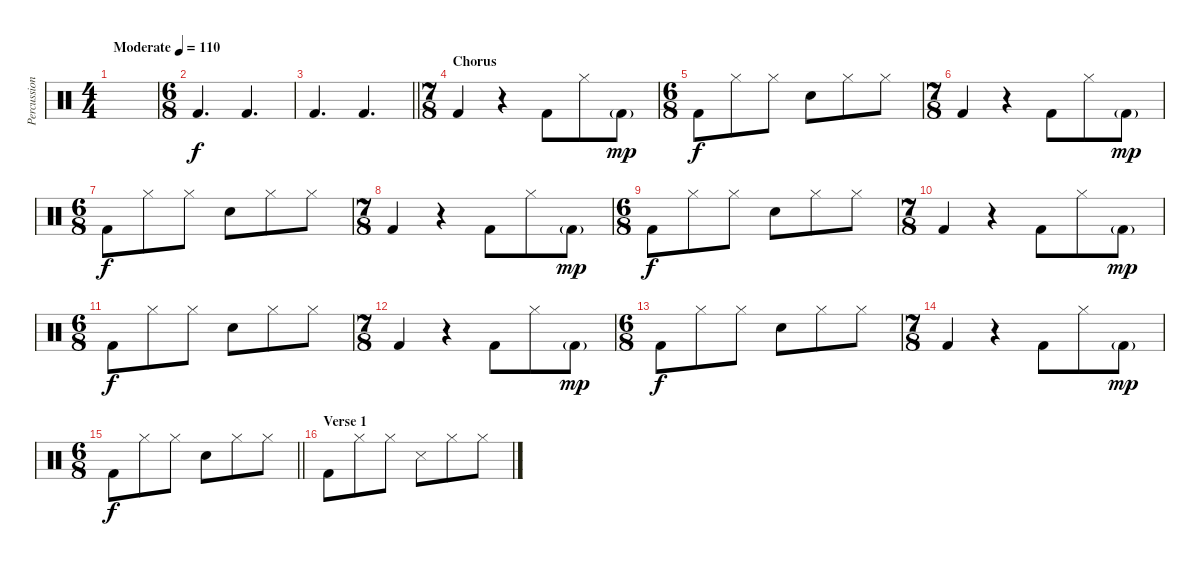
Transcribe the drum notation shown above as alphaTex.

\track ("Percussion" "Percussion") {instrument percussion}
\staff {score}
\articulation defaults
\ts (4 4)
\tempo (110 "Moderate")
\clef neutral
\ks c
|
\ts (6 8)
"Kick (hit) 2".4{d} "Kick (hit) 2".4{d} |
\barLineRight lightlight "Kick (hit) 2".4{d} "Kick (hit) 2".4{d}
|
\ts (7 8)
\section ("" "Chorus")
"Kick (hit) 2".4 r.4 "Kick (hit) 2".8 "Hi-Hat (closed)".8 "Kick (hit) 2"{g}.8{dy mp} |
\ts (6 8)
"Kick (hit) 2".8{dy f} "Hi-Hat (closed)".8 "Hi-Hat (closed)".8 "Snare (hit) 2".8 "Hi-Hat (closed)".8 "Hi-Hat (closed)".8 |
\ts (7 8)
"Kick (hit) 2".4 r.4 "Kick (hit) 2".8 "Hi-Hat (closed)".8 "Kick (hit) 2"{g}.8{dy mp} |
\ts (6 8)
"Kick (hit) 2".8{dy f} "Hi-Hat (closed)".8 "Hi-Hat (closed)".8 "Snare (hit) 2".8 "Hi-Hat (closed)".8 "Hi-Hat (closed)".8 |
\ts (7 8)
"Kick (hit) 2".4 r.4 "Kick (hit) 2".8 "Hi-Hat (closed)".8 "Kick (hit) 2"{g}.8{dy mp} |
\ts (6 8)
"Kick (hit) 2".8{dy f} "Hi-Hat (closed)".8 "Hi-Hat (closed)".8 "Snare (hit) 2".8 "Hi-Hat (closed)".8 "Hi-Hat (closed)".8 |
\ts (7 8)
"Kick (hit) 2".4 r.4 "Kick (hit) 2".8 "Hi-Hat (closed)".8 "Kick (hit) 2"{g}.8{dy mp} |
\ts (6 8)
"Kick (hit) 2".8{dy f} "Hi-Hat (closed)".8 "Hi-Hat (closed)".8 "Snare (hit) 2".8 "Hi-Hat (closed)".8 "Hi-Hat (closed)".8 |
\ts (7 8)
"Kick (hit) 2".4 r.4 "Kick (hit) 2".8 "Hi-Hat (closed)".8 "Kick (hit) 2"{g}.8{dy mp} |
\ts (6 8)
"Kick (hit) 2".8{dy f} "Hi-Hat (closed)".8 "Hi-Hat (closed)".8 "Snare (hit) 2".8 "Hi-Hat (closed)".8 "Hi-Hat (closed)".8 |
\ts (7 8)
"Kick (hit) 2".4 r.4 "Kick (hit) 2".8 "Hi-Hat (closed)".8 "Kick (hit) 2"{g}.8{dy mp} |
\ts (6 8)
\barLineRight lightlight "Kick (hit) 2".8{dy f} "Hi-Hat (closed)".8 "Hi-Hat (closed)".8 "Snare (hit) 2".8 "Hi-Hat (closed)".8 "Hi-Hat (closed)".8
|
\section ("" "Verse 1")
"Kick (hit) 2".8 "Hi-Hat (closed)".8 "Hi-Hat (closed)".8 "Snare (side stick) 3".8 "Hi-Hat (closed)".8 "Hi-Hat (closed)".8
